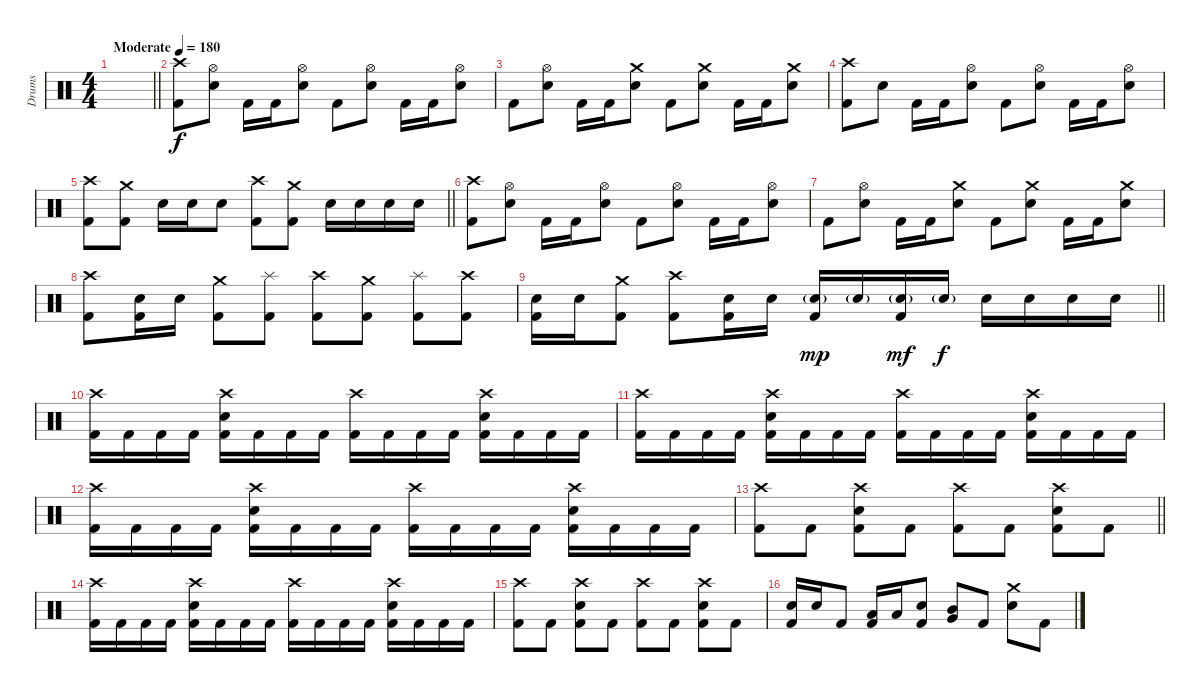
\track ("Drums" "Drums") {instrument percussion}
\staff {score}
\articulation defaults
\ts (4 4)
\tempo (180 "Moderate")
\clef neutral
\barLineRight lightlight
\ks c
|
("Crash high (hit)" "Kick (hit) 2").8 ("Hi-Hat (open)" "Electric Snare (hit)").8 "Kick (hit) 2".16 "Kick (hit) 2".16 ("Hi-Hat (open)" "Electric Snare (hit)").8 "Kick (hit) 2".8 ("Hi-Hat (open)" "Electric Snare (hit)").8 "Kick (hit) 2".16 "Kick (hit) 2".16 ("Hi-Hat (open)" "Electric Snare (hit)").8 |
"Kick (hit) 2".8 ("Hi-Hat (open)" "Electric Snare (hit)").8 "Kick (hit) 2".16 "Kick (hit) 2".16 ("Crash medium (hit)" "Electric Snare (hit)").8 "Kick (hit) 2".8 ("Crash medium (hit)" "Electric Snare (hit)").8 "Kick (hit) 2".16 "Kick (hit) 2".16 ("Crash medium (hit)" "Electric Snare (hit)").8 |
("Crash high (hit)" "Kick (hit) 2").8 "Electric Snare (hit)".8 "Kick (hit) 2".16 "Kick (hit) 2".16 ("Hi-Hat (open)" "Electric Snare (hit)").8 "Kick (hit) 2".8 ("Hi-Hat (open)" "Electric Snare (hit)").8 "Kick (hit) 2".16 "Kick (hit) 2".16 ("Hi-Hat (open)" "Electric Snare (hit)").8 |
\barLineRight lightlight
("Crash high (hit)" "Kick (hit) 2").8 ("Crash medium (hit)" "Kick (hit) 2").8 "Electric Snare (hit)".16 "Electric Snare (hit)".16 "Electric Snare (hit)".8 ("Crash high (hit)" "Kick (hit) 2").8 ("Crash medium (hit)" "Kick (hit) 2").8 "Electric Snare (hit)".16 "Electric Snare (hit)".16 "Electric Snare (hit)".16 "Electric Snare (hit)".16 |
("Crash high (hit)" "Kick (hit) 2").8 ("Hi-Hat (open)" "Electric Snare (hit)").8 "Kick (hit) 2".16 "Kick (hit) 2".16 ("Hi-Hat (open)" "Electric Snare (hit)").8 "Kick (hit) 2".8 ("Hi-Hat (open)" "Electric Snare (hit)").8 "Kick (hit) 2".16 "Kick (hit) 2".16 ("Hi-Hat (open)" "Electric Snare (hit)").8 |
"Kick (hit) 2".8 ("Hi-Hat (open)" "Electric Snare (hit)").8 "Kick (hit) 2".16 "Kick (hit) 2".16 ("Crash medium (hit)" "Electric Snare (hit)").8 "Kick (hit) 2".8 ("Crash medium (hit)" "Electric Snare (hit)").8 "Kick (hit) 2".16 "Kick (hit) 2".16 ("Crash medium (hit)" "Electric Snare (hit)").8 |
("Crash high (hit)" "Kick (hit) 2").8 ("Electric Snare (hit)" "Kick (hit) 2").16 "Electric Snare (hit)".16 ("Crash medium (hit)" "Kick (hit) 2").8 ("Splash (hit)" "Kick (hit) 2").8 ("Crash high (hit)" "Kick (hit) 2").8 ("Crash medium (hit)" "Kick (hit) 2").8 ("Splash (hit)" "Kick (hit) 2").8 ("Crash high (hit)" "Kick (hit) 2").8 |
\barLineRight lightlight
("Electric Snare (hit)" "Kick (hit) 2").16 "Electric Snare (hit)".16 ("Crash medium (hit)" "Kick (hit) 2").8 ("Crash high (hit)" "Kick (hit) 2").8 ("Electric Snare (hit)" "Kick (hit) 2").16 "Electric Snare (hit)".16 ("Electric Snare (hit)"{g} "Kick (hit) 2").16{dy mp} "Electric Snare (hit)"{g}.16 ("Electric Snare (hit)"{g} "Kick (hit) 2").16{dy mf} "Electric Snare (hit)"{g}.16{dy f} "Electric Snare (hit)".16 "Electric Snare (hit)".16 "Electric Snare (hit)".16 "Electric Snare (hit)".16 |
("Crash high (hit)" "Kick (hit) 2").16 "Kick (hit) 2".16 "Kick (hit) 2".16 "Kick (hit) 2".16 ("Crash high (hit)" "Electric Snare (hit)" "Kick (hit) 2").16 "Kick (hit) 2".16 "Kick (hit) 2".16 "Kick (hit) 2".16 ("Crash high (hit)" "Kick (hit) 2").16 "Kick (hit) 2".16 "Kick (hit) 2".16 "Kick (hit) 2".16 ("Crash high (hit)" "Electric Snare (hit)" "Kick (hit) 2").16 "Kick (hit) 2".16 "Kick (hit) 2".16 "Kick (hit) 2".16 |
("Crash high (hit)" "Kick (hit) 2").16 "Kick (hit) 2".16 "Kick (hit) 2".16 "Kick (hit) 2".16 ("Crash high (hit)" "Electric Snare (hit)" "Kick (hit) 2").16 "Kick (hit) 2".16 "Kick (hit) 2".16 "Kick (hit) 2".16 ("Crash high (hit)" "Kick (hit) 2").16 "Kick (hit) 2".16 "Kick (hit) 2".16 "Kick (hit) 2".16 ("Crash high (hit)" "Electric Snare (hit)" "Kick (hit) 2").16 "Kick (hit) 2".16 "Kick (hit) 2".16 "Kick (hit) 2".16 |
("Crash high (hit)" "Kick (hit) 2").16 "Kick (hit) 2".16 "Kick (hit) 2".16 "Kick (hit) 2".16 ("Crash high (hit)" "Electric Snare (hit)" "Kick (hit) 2").16 "Kick (hit) 2".16 "Kick (hit) 2".16 "Kick (hit) 2".16 ("Crash high (hit)" "Kick (hit) 2").16 "Kick (hit) 2".16 "Kick (hit) 2".16 "Kick (hit) 2".16 ("Crash high (hit)" "Electric Snare (hit)" "Kick (hit) 2").16 "Kick (hit) 2".16 "Kick (hit) 2".16 "Kick (hit) 2".16 |
\barLineRight lightlight
("Crash high (hit)" "Kick (hit) 2").8 "Kick (hit) 2".8 ("Crash high (hit)" "Electric Snare (hit)" "Kick (hit) 2").8 "Kick (hit) 2".8 ("Crash high (hit)" "Kick (hit) 2").8 "Kick (hit) 2".8 ("Crash high (hit)" "Electric Snare (hit)" "Kick (hit) 2").8 "Kick (hit) 2".8 |
("Crash high (hit)" "Kick (hit) 2").16 "Kick (hit) 2".16 "Kick (hit) 2".16 "Kick (hit) 2".16 ("Crash high (hit)" "Electric Snare (hit)" "Kick (hit) 2").16 "Kick (hit) 2".16 "Kick (hit) 2".16 "Kick (hit) 2".16 ("Crash high (hit)" "Kick (hit) 2").16 "Kick (hit) 2".16 "Kick (hit) 2".16 "Kick (hit) 2".16 ("Crash high (hit)" "Electric Snare (hit)" "Kick (hit) 2").16 "Kick (hit) 2".16 "Kick (hit) 2".16 "Kick (hit) 2".16 |
("Crash high (hit)" "Kick (hit) 2").8 "Kick (hit) 2".8 ("Crash high (hit)" "Electric Snare (hit)" "Kick (hit) 2").8 "Kick (hit) 2".8 ("Crash high (hit)" "Kick (hit) 2").8 "Kick (hit) 2".8 ("Crash high (hit)" "Electric Snare (hit)" "Kick (hit) 2").8 "Kick (hit) 2".8 |
("Electric Snare (hit)" "Kick (hit) 2").16 "Electric Snare (hit)".16 "Kick (hit) 2".8 ("Low Tom (hit)" "Kick (hit) 2").16 "Low Tom (hit)".16 ("Electric Snare (hit)" "Kick (hit) 2").8 ("Mid Tom (hit)" "Very Low Tom (hit)").8 "Kick (hit) 2".8 ("Crash medium (hit)" "Electric Snare (hit)").8 "Kick (hit) 2".8
